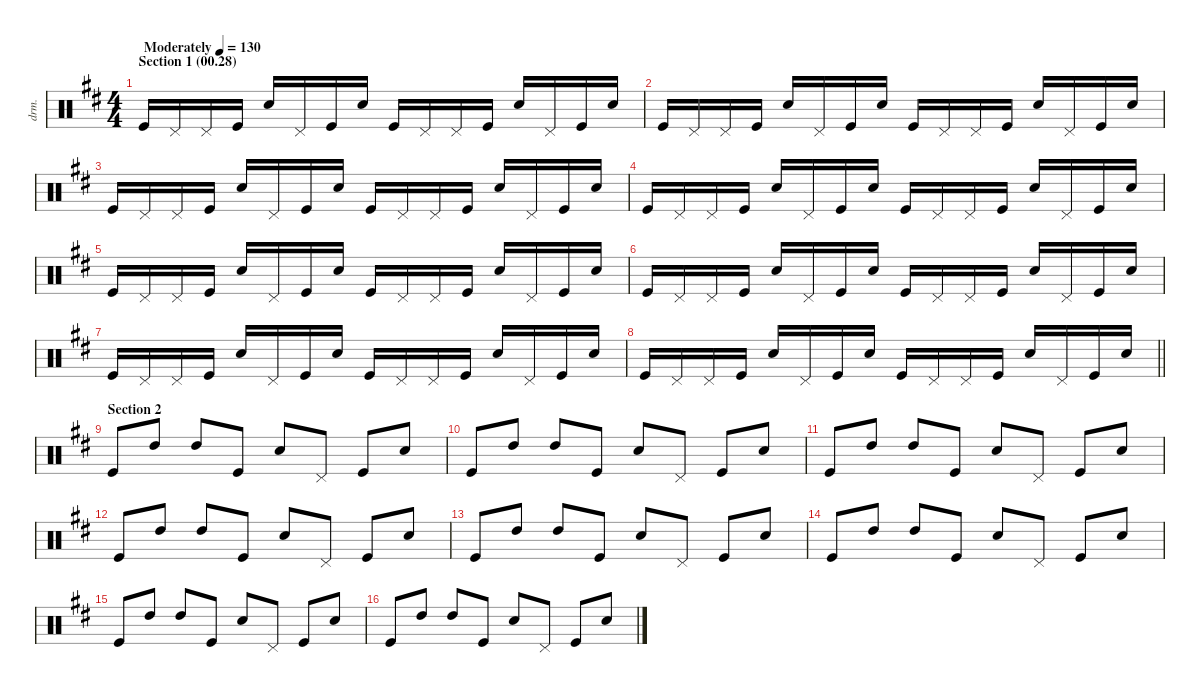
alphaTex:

\defaultSystemsLayout 4
\hideDynamics
\bracketExtendMode nobrackets
\otherSystemsTrackNameOrientation horizontal
\track ("Percussion" "drm.") {instrument percussion}
\staff {score}
\articulation defaults
\ts (4 4)
\beaming (8 2 2 2 2)
\section ("" "Section 1 (00.28)")
\tempo (130 "Moderately")
\clef neutral
\ks d "Kick (hit)"{acc forcenatural}.16{dy f} "Pedal Hi-Hat (hit)"{acc forcenatural}.16 "Pedal Hi-Hat (hit)"{acc forcenatural}.16 "Kick (hit)"{acc forcenatural}.16 "Snare (hit) 2"{acc forcenatural}.16 "Pedal Hi-Hat (hit)"{acc forcenatural}.16 "Kick (hit)"{acc forcenatural}.16 "Snare (hit) 2"{acc forcenatural}.16 "Kick (hit)"{acc forcenatural}.16 "Pedal Hi-Hat (hit)"{acc forcenatural}.16 "Pedal Hi-Hat (hit)"{acc forcenatural}.16 "Kick (hit)"{acc forcenatural}.16 "Snare (hit) 2"{acc forcenatural}.16 "Pedal Hi-Hat (hit)"{acc forcenatural}.16 "Kick (hit)"{acc forcenatural}.16 "Snare (hit) 2"{acc forcenatural}.16
|
"Kick (hit)"{acc forcenatural}.16 "Pedal Hi-Hat (hit)"{acc forcenatural}.16 "Pedal Hi-Hat (hit)"{acc forcenatural}.16 "Kick (hit)"{acc forcenatural}.16 "Snare (hit) 2"{acc forcenatural}.16 "Pedal Hi-Hat (hit)"{acc forcenatural}.16 "Kick (hit)"{acc forcenatural}.16 "Snare (hit) 2"{acc forcenatural}.16 "Kick (hit)"{acc forcenatural}.16 "Pedal Hi-Hat (hit)"{acc forcenatural}.16 "Pedal Hi-Hat (hit)"{acc forcenatural}.16 "Kick (hit)"{acc forcenatural}.16 "Snare (hit) 2"{acc forcenatural}.16 "Pedal Hi-Hat (hit)"{acc forcenatural}.16 "Kick (hit)"{acc forcenatural}.16 "Snare (hit) 2"{acc forcenatural}.16 |
"Kick (hit)"{acc forcenatural}.16 "Pedal Hi-Hat (hit)"{acc forcenatural}.16 "Pedal Hi-Hat (hit)"{acc forcenatural}.16 "Kick (hit)"{acc forcenatural}.16 "Snare (hit) 2"{acc forcenatural}.16 "Pedal Hi-Hat (hit)"{acc forcenatural}.16 "Kick (hit)"{acc forcenatural}.16 "Snare (hit) 2"{acc forcenatural}.16 "Kick (hit)"{acc forcenatural}.16 "Pedal Hi-Hat (hit)"{acc forcenatural}.16 "Pedal Hi-Hat (hit)"{acc forcenatural}.16 "Kick (hit)"{acc forcenatural}.16 "Snare (hit) 2"{acc forcenatural}.16 "Pedal Hi-Hat (hit)"{acc forcenatural}.16 "Kick (hit)"{acc forcenatural}.16 "Snare (hit) 2"{acc forcenatural}.16 |
"Kick (hit)"{acc forcenatural}.16 "Pedal Hi-Hat (hit)"{acc forcenatural}.16 "Pedal Hi-Hat (hit)"{acc forcenatural}.16 "Kick (hit)"{acc forcenatural}.16 "Snare (hit) 2"{acc forcenatural}.16 "Pedal Hi-Hat (hit)"{acc forcenatural}.16 "Kick (hit)"{acc forcenatural}.16 "Snare (hit) 2"{acc forcenatural}.16 "Kick (hit)"{acc forcenatural}.16 "Pedal Hi-Hat (hit)"{acc forcenatural}.16 "Pedal Hi-Hat (hit)"{acc forcenatural}.16 "Kick (hit)"{acc forcenatural}.16 "Snare (hit) 2"{acc forcenatural}.16 "Pedal Hi-Hat (hit)"{acc forcenatural}.16 "Kick (hit)"{acc forcenatural}.16 "Snare (hit) 2"{acc forcenatural}.16 |
"Kick (hit)"{acc forcenatural}.16 "Pedal Hi-Hat (hit)"{acc forcenatural}.16 "Pedal Hi-Hat (hit)"{acc forcenatural}.16 "Kick (hit)"{acc forcenatural}.16 "Snare (hit) 2"{acc forcenatural}.16 "Pedal Hi-Hat (hit)"{acc forcenatural}.16 "Kick (hit)"{acc forcenatural}.16 "Snare (hit) 2"{acc forcenatural}.16 "Kick (hit)"{acc forcenatural}.16 "Pedal Hi-Hat (hit)"{acc forcenatural}.16 "Pedal Hi-Hat (hit)"{acc forcenatural}.16 "Kick (hit)"{acc forcenatural}.16 "Snare (hit) 2"{acc forcenatural}.16 "Pedal Hi-Hat (hit)"{acc forcenatural}.16 "Kick (hit)"{acc forcenatural}.16 "Snare (hit) 2"{acc forcenatural}.16 |
"Kick (hit)"{acc forcenatural}.16 "Pedal Hi-Hat (hit)"{acc forcenatural}.16 "Pedal Hi-Hat (hit)"{acc forcenatural}.16 "Kick (hit)"{acc forcenatural}.16 "Snare (hit) 2"{acc forcenatural}.16 "Pedal Hi-Hat (hit)"{acc forcenatural}.16 "Kick (hit)"{acc forcenatural}.16 "Snare (hit) 2"{acc forcenatural}.16 "Kick (hit)"{acc forcenatural}.16 "Pedal Hi-Hat (hit)"{acc forcenatural}.16 "Pedal Hi-Hat (hit)"{acc forcenatural}.16 "Kick (hit)"{acc forcenatural}.16 "Snare (hit) 2"{acc forcenatural}.16 "Pedal Hi-Hat (hit)"{acc forcenatural}.16 "Kick (hit)"{acc forcenatural}.16 "Snare (hit) 2"{acc forcenatural}.16 |
"Kick (hit)"{acc forcenatural}.16 "Pedal Hi-Hat (hit)"{acc forcenatural}.16 "Pedal Hi-Hat (hit)"{acc forcenatural}.16 "Kick (hit)"{acc forcenatural}.16 "Snare (hit) 2"{acc forcenatural}.16 "Pedal Hi-Hat (hit)"{acc forcenatural}.16 "Kick (hit)"{acc forcenatural}.16 "Snare (hit) 2"{acc forcenatural}.16 "Kick (hit)"{acc forcenatural}.16 "Pedal Hi-Hat (hit)"{acc forcenatural}.16 "Pedal Hi-Hat (hit)"{acc forcenatural}.16 "Kick (hit)"{acc forcenatural}.16 "Snare (hit) 2"{acc forcenatural}.16 "Pedal Hi-Hat (hit)"{acc forcenatural}.16 "Kick (hit)"{acc forcenatural}.16 "Snare (hit) 2"{acc forcenatural}.16 |
\barLineRight lightlight "Kick (hit)"{acc forcenatural}.16 "Pedal Hi-Hat (hit)"{acc forcenatural}.16 "Pedal Hi-Hat (hit)"{acc forcenatural}.16 "Kick (hit)"{acc forcenatural}.16 "Snare (hit) 2"{acc forcenatural}.16 "Pedal Hi-Hat (hit)"{acc forcenatural}.16 "Kick (hit)"{acc forcenatural}.16 "Snare (hit) 2"{acc forcenatural}.16 "Kick (hit)"{acc forcenatural}.16 "Pedal Hi-Hat (hit)"{acc forcenatural}.16 "Pedal Hi-Hat (hit)"{acc forcenatural}.16 "Kick (hit)"{acc forcenatural}.16 "Snare (hit) 2"{acc forcenatural}.16 "Pedal Hi-Hat (hit)"{acc forcenatural}.16 "Kick (hit)"{acc forcenatural}.16 "Snare (hit) 2"{acc forcenatural}.16
|
\section ("" "Section 2")
"Kick (hit)"{acc forcenatural}.8 "High Tom (hit)"{acc forcenatural}.8 "High Tom (hit)"{acc forcenatural}.8 "Kick (hit)"{acc forcenatural}.8 "Snare (hit) 2"{acc forcenatural}.8 "Pedal Hi-Hat (hit)"{acc forcenatural}.8 "Kick (hit)"{acc forcenatural}.8 "Snare (hit) 2"{acc forcenatural}.8 |
"Kick (hit)"{acc forcenatural}.8 "High Tom (hit)"{acc forcenatural}.8 "High Tom (hit)"{acc forcenatural}.8 "Kick (hit)"{acc forcenatural}.8 "Snare (hit) 2"{acc forcenatural}.8 "Pedal Hi-Hat (hit)"{acc forcenatural}.8 "Kick (hit)"{acc forcenatural}.8 "Snare (hit) 2"{acc forcenatural}.8 |
"Kick (hit)"{acc forcenatural}.8 "High Tom (hit)"{acc forcenatural}.8 "High Tom (hit)"{acc forcenatural}.8 "Kick (hit)"{acc forcenatural}.8 "Snare (hit) 2"{acc forcenatural}.8 "Pedal Hi-Hat (hit)"{acc forcenatural}.8 "Kick (hit)"{acc forcenatural}.8 "Snare (hit) 2"{acc forcenatural}.8 |
"Kick (hit)"{acc forcenatural}.8 "High Tom (hit)"{acc forcenatural}.8 "High Tom (hit)"{acc forcenatural}.8 "Kick (hit)"{acc forcenatural}.8 "Snare (hit) 2"{acc forcenatural}.8 "Pedal Hi-Hat (hit)"{acc forcenatural}.8 "Kick (hit)"{acc forcenatural}.8 "Snare (hit) 2"{acc forcenatural}.8 |
"Kick (hit)"{acc forcenatural}.8 "High Tom (hit)"{acc forcenatural}.8 "High Tom (hit)"{acc forcenatural}.8 "Kick (hit)"{acc forcenatural}.8 "Snare (hit) 2"{acc forcenatural}.8 "Pedal Hi-Hat (hit)"{acc forcenatural}.8 "Kick (hit)"{acc forcenatural}.8 "Snare (hit) 2"{acc forcenatural}.8 |
"Kick (hit)"{acc forcenatural}.8 "High Tom (hit)"{acc forcenatural}.8 "High Tom (hit)"{acc forcenatural}.8 "Kick (hit)"{acc forcenatural}.8 "Snare (hit) 2"{acc forcenatural}.8 "Pedal Hi-Hat (hit)"{acc forcenatural}.8 "Kick (hit)"{acc forcenatural}.8 "Snare (hit) 2"{acc forcenatural}.8 |
"Kick (hit)"{acc forcenatural}.8 "High Tom (hit)"{acc forcenatural}.8 "High Tom (hit)"{acc forcenatural}.8 "Kick (hit)"{acc forcenatural}.8 "Snare (hit) 2"{acc forcenatural}.8 "Pedal Hi-Hat (hit)"{acc forcenatural}.8 "Kick (hit)"{acc forcenatural}.8 "Snare (hit) 2"{acc forcenatural}.8 |
"Kick (hit)"{acc forcenatural}.8 "High Tom (hit)"{acc forcenatural}.8 "High Tom (hit)"{acc forcenatural}.8 "Kick (hit)"{acc forcenatural}.8 "Snare (hit) 2"{acc forcenatural}.8 "Pedal Hi-Hat (hit)"{acc forcenatural}.8 "Kick (hit)"{acc forcenatural}.8 "Snare (hit) 2"{acc forcenatural}.8
